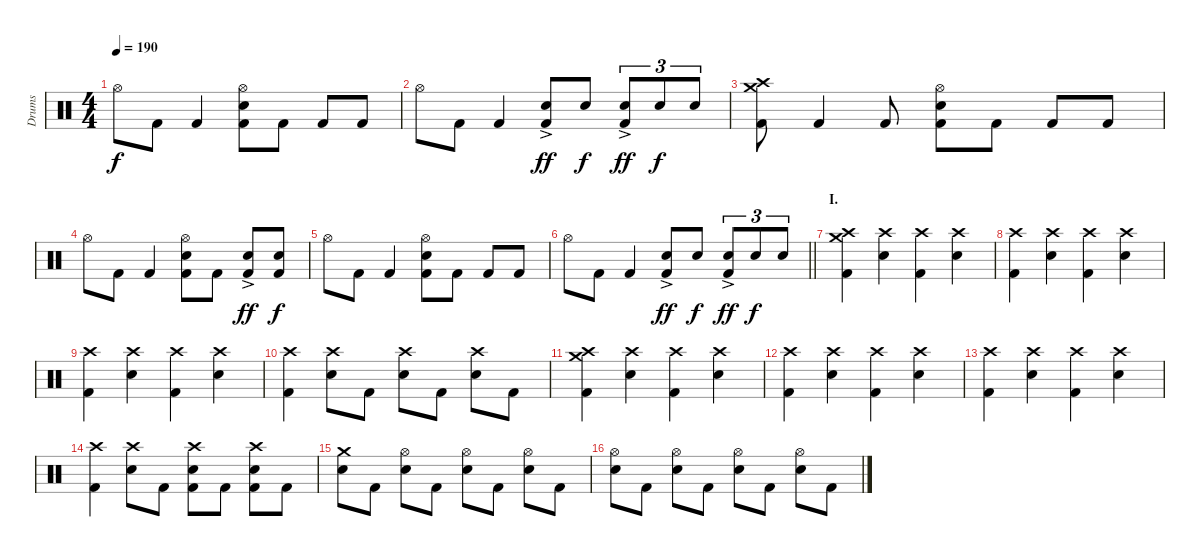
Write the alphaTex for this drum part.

\track ("Drums" "Drums") {instrument percussion}
\staff {score}
\articulation defaults
\ts (4 4)
\tempo 190
\clef neutral
\ks c "Hi-Hat (open)".8{dy f} "Kick (hit) 2".8 "Kick (hit) 2".4
("Hi-Hat (open)" "Electric Snare (hit)" "Kick (hit) 2").8 "Kick (hit) 2".8 "Kick (hit) 2".8 "Kick (hit) 2".8 |
"Hi-Hat (open)".8 "Kick (hit) 2".8 "Kick (hit) 2".4 ("Electric Snare (hit)"{ac} "Kick (hit) 2").8{dy ff} "Electric Snare (hit)".8{dy f} ("Electric Snare (hit)"{ac} "Kick (hit) 2").8{tu (3 2) dy ff} "Electric Snare (hit)".8{tu (3 2) dy f} "Electric Snare (hit)".8{tu (3 2)} |
("Crash medium (hit)" "Crash high (hit)" "Kick (hit) 2").8 "Kick (hit) 2".4 "Kick (hit) 2".8 ("Hi-Hat (open)" "Electric Snare (hit)" "Kick (hit) 2").8 "Kick (hit) 2".8 "Kick (hit) 2".8 "Kick (hit) 2".8 |
"Hi-Hat (open)".8 "Kick (hit) 2".8 "Kick (hit) 2".4 ("Hi-Hat (open)" "Electric Snare (hit)" "Kick (hit) 2").8 "Kick (hit) 2".8 ("Electric Snare (hit)"{ac} "Kick (hit) 2").8{dy ff} ("Electric Snare (hit)" "Kick (hit) 2").8{dy f} |
"Hi-Hat (open)".8 "Kick (hit) 2".8 "Kick (hit) 2".4 ("Hi-Hat (open)" "Electric Snare (hit)" "Kick (hit) 2").8 "Kick (hit) 2".8 "Kick (hit) 2".8 "Kick (hit) 2".8 |
\barLineRight lightlight "Hi-Hat (open)".8 "Kick (hit) 2".8 "Kick (hit) 2".4
("Electric Snare (hit)"{ac} "Kick (hit) 2").8{dy ff} "Electric Snare (hit)".8{dy f} ("Electric Snare (hit)"{ac} "Kick (hit) 2").8{tu (3 2) dy ff} "Electric Snare (hit)".8{tu (3 2) dy f} "Electric Snare (hit)".8{tu (3 2)} |
\section ("" "I.")
("Crash medium (hit)" "Crash high (hit)" "Kick (hit) 2").4 ("Crash high (hit)" "Electric Snare (hit)").4 ("Crash high (hit)" "Kick (hit) 2").4 ("Crash high (hit)" "Electric Snare (hit)").4 |
("Crash high (hit)" "Kick (hit) 2").4 ("Crash high (hit)" "Electric Snare (hit)").4 ("Crash high (hit)" "Kick (hit) 2").4 ("Crash high (hit)" "Electric Snare (hit)").4 |
("Crash high (hit)" "Kick (hit) 2").4 ("Crash high (hit)" "Electric Snare (hit)").4 ("Crash high (hit)" "Kick (hit) 2").4 ("Crash high (hit)" "Electric Snare (hit)").4 |
("Crash high (hit)" "Kick (hit) 2").4 ("Crash high (hit)" "Electric Snare (hit)").8 "Kick (hit) 2".8 ("Crash high (hit)" "Electric Snare (hit)").8 "Kick (hit) 2".8 ("Crash high (hit)" "Electric Snare (hit)").8 "Kick (hit) 2".8 |
("Crash medium (hit)" "Crash high (hit)" "Kick (hit) 2").4 ("Crash high (hit)" "Electric Snare (hit)").4 ("Crash high (hit)" "Kick (hit) 2").4 ("Crash high (hit)" "Electric Snare (hit)").4 |
("Crash high (hit)" "Kick (hit) 2").4 ("Crash high (hit)" "Electric Snare (hit)").4 ("Crash high (hit)" "Kick (hit) 2").4 ("Crash high (hit)" "Electric Snare (hit)").4 |
("Crash high (hit)" "Kick (hit) 2").4 ("Crash high (hit)" "Electric Snare (hit)").4 ("Crash high (hit)" "Kick (hit) 2").4 ("Crash high (hit)" "Electric Snare (hit)").4 |
("Crash high (hit)" "Kick (hit) 2").4 ("Crash high (hit)" "Electric Snare (hit)").8 "Kick (hit) 2".8 ("Crash high (hit)" "Electric Snare (hit)" "Kick (hit) 2").8 "Kick (hit) 2".8 ("Crash high (hit)" "Electric Snare (hit)" "Kick (hit) 2").8 "Kick (hit) 2".8 |
("Crash medium (hit)" "Electric Snare (hit)").8 "Kick (hit) 2".8 ("Hi-Hat (open)" "Electric Snare (hit)").8 "Kick (hit) 2".8 ("Hi-Hat (open)" "Electric Snare (hit)").8 "Kick (hit) 2".8 ("Hi-Hat (open)" "Electric Snare (hit)").8 "Kick (hit) 2".8 |
("Hi-Hat (open)" "Electric Snare (hit)").8 "Kick (hit) 2".8 ("Hi-Hat (open)" "Electric Snare (hit)").8 "Kick (hit) 2".8 ("Hi-Hat (open)" "Electric Snare (hit)").8 "Kick (hit) 2".8 ("Hi-Hat (open)" "Electric Snare (hit)").8 "Kick (hit) 2".8
